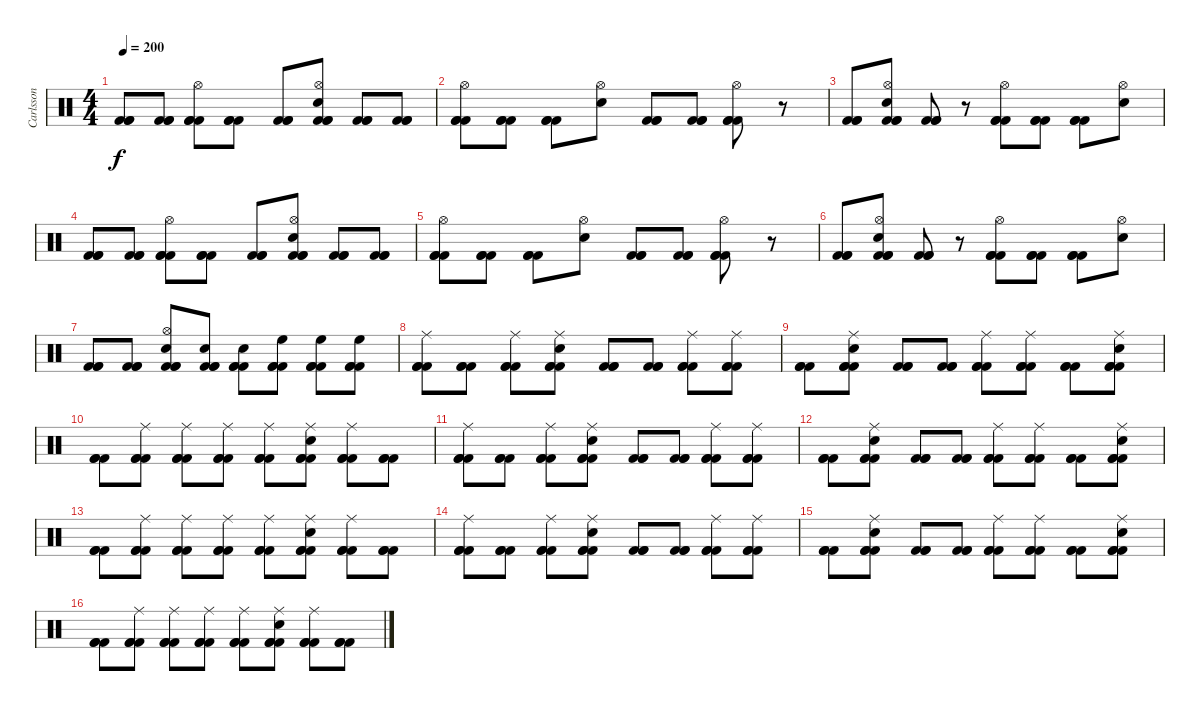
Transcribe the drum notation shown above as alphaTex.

\track ("Carlsson" "Carlsson") {instrument percussion}
\staff {score}
\articulation defaults
\ts (4 4)
\tempo 200
\clef neutral
\ks c
("Kick (hit) 2" "Kick (hit) 2" "Kick (hit) 2").8{dy f} ("Kick (hit) 2" "Kick (hit) 2" "Kick (hit) 2").8 ("Hi-Hat (open)" "Kick (hit) 2" "Kick (hit) 2" "Kick (hit) 2").8 ("Kick (hit) 2" "Kick (hit) 2" "Kick (hit) 2").8 ("Kick (hit) 2" "Kick (hit) 2" "Kick (hit) 2").8 ("Hi-Hat (open)" "Snare (hit) 2" "Kick (hit) 2" "Kick (hit) 2" "Kick (hit) 2").8 ("Kick (hit) 2" "Kick (hit) 2" "Kick (hit) 2").8 ("Kick (hit) 2" "Kick (hit) 2" "Kick (hit) 2").8 |
("Hi-Hat (open)" "Kick (hit) 2" "Kick (hit) 2" "Kick (hit) 2").8 ("Kick (hit) 2" "Kick (hit) 2" "Kick (hit) 2").8 ("Kick (hit) 2" "Kick (hit) 2" "Kick (hit) 2").8 ("Hi-Hat (open)" "Snare (hit) 2").8 ("Kick (hit) 2" "Kick (hit) 2" "Kick (hit) 2").8 ("Kick (hit) 2" "Kick (hit) 2" "Kick (hit) 2").8 ("Hi-Hat (open)" "Kick (hit) 2" "Kick (hit) 2" "Kick (hit) 2").8 r.8 |
("Kick (hit) 2" "Kick (hit) 2" "Kick (hit) 2").8 ("Hi-Hat (open)" "Snare (hit) 2" "Kick (hit) 2" "Kick (hit) 2" "Kick (hit) 2").8 ("Kick (hit) 2" "Kick (hit) 2" "Kick (hit) 2").8 r.8 ("Hi-Hat (open)" "Kick (hit) 2" "Kick (hit) 2" "Kick (hit) 2").8 ("Kick (hit) 2" "Kick (hit) 2" "Kick (hit) 2").8 ("Kick (hit) 2" "Kick (hit) 2" "Kick (hit) 2").8 ("Hi-Hat (open)" "Snare (hit) 2").8 |
("Kick (hit) 2" "Kick (hit) 2" "Kick (hit) 2").8 ("Kick (hit) 2" "Kick (hit) 2" "Kick (hit) 2").8 ("Hi-Hat (open)" "Kick (hit) 2" "Kick (hit) 2" "Kick (hit) 2").8 ("Kick (hit) 2" "Kick (hit) 2" "Kick (hit) 2").8 ("Kick (hit) 2" "Kick (hit) 2" "Kick (hit) 2").8 ("Hi-Hat (open)" "Snare (hit) 2" "Kick (hit) 2" "Kick (hit) 2" "Kick (hit) 2").8 ("Kick (hit) 2" "Kick (hit) 2" "Kick (hit) 2").8 ("Kick (hit) 2" "Kick (hit) 2" "Kick (hit) 2").8 |
("Hi-Hat (open)" "Kick (hit) 2" "Kick (hit) 2" "Kick (hit) 2").8 ("Kick (hit) 2" "Kick (hit) 2" "Kick (hit) 2").8 ("Kick (hit) 2" "Kick (hit) 2" "Kick (hit) 2").8 ("Hi-Hat (open)" "Snare (hit) 2").8 ("Kick (hit) 2" "Kick (hit) 2" "Kick (hit) 2").8 ("Kick (hit) 2" "Kick (hit) 2" "Kick (hit) 2").8 ("Hi-Hat (open)" "Kick (hit) 2" "Kick (hit) 2" "Kick (hit) 2").8 r.8 |
("Kick (hit) 2" "Kick (hit) 2" "Kick (hit) 2").8 ("Hi-Hat (open)" "Snare (hit) 2" "Kick (hit) 2" "Kick (hit) 2" "Kick (hit) 2").8 ("Kick (hit) 2" "Kick (hit) 2" "Kick (hit) 2").8 r.8 ("Hi-Hat (open)" "Kick (hit) 2" "Kick (hit) 2" "Kick (hit) 2").8 ("Kick (hit) 2" "Kick (hit) 2" "Kick (hit) 2").8 ("Kick (hit) 2" "Kick (hit) 2" "Kick (hit) 2").8 ("Hi-Hat (open)" "Snare (hit) 2").8 |
("Kick (hit) 2" "Kick (hit) 2" "Kick (hit) 2").8 ("Kick (hit) 2" "Kick (hit) 2" "Kick (hit) 2").8 ("Hi-Hat (open)" "Snare (hit) 2" "Kick (hit) 2" "Kick (hit) 2" "Kick (hit) 2").8 ("Snare (hit) 2" "Kick (hit) 2" "Kick (hit) 2" "Kick (hit) 2").8 ("Snare (hit) 2" "Kick (hit) 2" "Kick (hit) 2" "Kick (hit) 2").8 ("High Floor Tom (hit)" "Kick (hit) 2" "Kick (hit) 2" "Kick (hit) 2").8 ("High Floor Tom (hit)" "Kick (hit) 2" "Kick (hit) 2" "Kick (hit) 2").8 ("High Floor Tom (hit)" "Kick (hit) 2" "Kick (hit) 2" "Kick (hit) 2").8 |
("Ride (middle)" "Kick (hit) 2" "Kick (hit) 2" "Kick (hit) 2").8 ("Kick (hit) 2" "Kick (hit) 2" "Kick (hit) 2").8 ("Ride (middle)" "Kick (hit) 2" "Kick (hit) 2" "Kick (hit) 2").8 ("Ride (middle)" "Snare (hit) 2" "Kick (hit) 2" "Kick (hit) 2" "Kick (hit) 2").8 ("Kick (hit) 2" "Kick (hit) 2" "Kick (hit) 2").8 ("Kick (hit) 2" "Kick (hit) 2" "Kick (hit) 2").8 ("Ride (middle)" "Kick (hit) 2" "Kick (hit) 2" "Kick (hit) 2").8 ("Ride (middle)" "Kick (hit) 2" "Kick (hit) 2" "Kick (hit) 2").8 |
("Kick (hit) 2" "Kick (hit) 2" "Kick (hit) 2").8 ("Ride (middle)" "Snare (hit) 2" "Kick (hit) 2" "Kick (hit) 2" "Kick (hit) 2").8 ("Kick (hit) 2" "Kick (hit) 2" "Kick (hit) 2").8 ("Kick (hit) 2" "Kick (hit) 2" "Kick (hit) 2").8 ("Ride (middle)" "Kick (hit) 2" "Kick (hit) 2" "Kick (hit) 2").8 ("Ride (middle)" "Kick (hit) 2" "Kick (hit) 2" "Kick (hit) 2").8 ("Kick (hit) 2" "Kick (hit) 2" "Kick (hit) 2").8 ("Ride (middle)" "Snare (hit) 2" "Kick (hit) 2" "Kick (hit) 2" "Kick (hit) 2").8 |
("Kick (hit) 2" "Kick (hit) 2" "Kick (hit) 2").8 ("Ride (middle)" "Kick (hit) 2" "Kick (hit) 2" "Kick (hit) 2").8 ("Ride (middle)" "Kick (hit) 2" "Kick (hit) 2" "Kick (hit) 2").8 ("Ride (middle)" "Kick (hit) 2" "Kick (hit) 2" "Kick (hit) 2").8 ("Ride (middle)" "Kick (hit) 2" "Kick (hit) 2" "Kick (hit) 2").8 ("Ride (middle)" "Snare (hit) 2" "Kick (hit) 2" "Kick (hit) 2" "Kick (hit) 2").8 ("Ride (middle)" "Kick (hit) 2" "Kick (hit) 2" "Kick (hit) 2").8 ("Kick (hit) 2" "Kick (hit) 2" "Kick (hit) 2").8 |
("Ride (middle)" "Kick (hit) 2" "Kick (hit) 2" "Kick (hit) 2").8 ("Kick (hit) 2" "Kick (hit) 2" "Kick (hit) 2").8 ("Ride (middle)" "Kick (hit) 2" "Kick (hit) 2" "Kick (hit) 2").8 ("Ride (middle)" "Snare (hit) 2" "Kick (hit) 2" "Kick (hit) 2" "Kick (hit) 2").8 ("Kick (hit) 2" "Kick (hit) 2" "Kick (hit) 2").8 ("Kick (hit) 2" "Kick (hit) 2" "Kick (hit) 2").8 ("Ride (middle)" "Kick (hit) 2" "Kick (hit) 2" "Kick (hit) 2").8 ("Ride (middle)" "Kick (hit) 2" "Kick (hit) 2" "Kick (hit) 2").8 |
("Kick (hit) 2" "Kick (hit) 2" "Kick (hit) 2").8 ("Ride (middle)" "Snare (hit) 2" "Kick (hit) 2" "Kick (hit) 2" "Kick (hit) 2").8 ("Kick (hit) 2" "Kick (hit) 2" "Kick (hit) 2").8 ("Kick (hit) 2" "Kick (hit) 2" "Kick (hit) 2").8 ("Ride (middle)" "Kick (hit) 2" "Kick (hit) 2" "Kick (hit) 2").8 ("Ride (middle)" "Kick (hit) 2" "Kick (hit) 2" "Kick (hit) 2").8 ("Kick (hit) 2" "Kick (hit) 2" "Kick (hit) 2").8 ("Ride (middle)" "Snare (hit) 2" "Kick (hit) 2" "Kick (hit) 2" "Kick (hit) 2").8 |
("Kick (hit) 2" "Kick (hit) 2" "Kick (hit) 2").8 ("Ride (middle)" "Kick (hit) 2" "Kick (hit) 2" "Kick (hit) 2").8 ("Ride (middle)" "Kick (hit) 2" "Kick (hit) 2" "Kick (hit) 2").8 ("Ride (middle)" "Kick (hit) 2" "Kick (hit) 2" "Kick (hit) 2").8 ("Ride (middle)" "Kick (hit) 2" "Kick (hit) 2" "Kick (hit) 2").8 ("Ride (middle)" "Snare (hit) 2" "Kick (hit) 2" "Kick (hit) 2" "Kick (hit) 2").8 ("Ride (middle)" "Kick (hit) 2" "Kick (hit) 2" "Kick (hit) 2").8 ("Kick (hit) 2" "Kick (hit) 2" "Kick (hit) 2").8 |
("Ride (middle)" "Kick (hit) 2" "Kick (hit) 2" "Kick (hit) 2").8 ("Kick (hit) 2" "Kick (hit) 2" "Kick (hit) 2").8 ("Ride (middle)" "Kick (hit) 2" "Kick (hit) 2" "Kick (hit) 2").8 ("Ride (middle)" "Snare (hit) 2" "Kick (hit) 2" "Kick (hit) 2" "Kick (hit) 2").8 ("Kick (hit) 2" "Kick (hit) 2" "Kick (hit) 2").8 ("Kick (hit) 2" "Kick (hit) 2" "Kick (hit) 2").8 ("Ride (middle)" "Kick (hit) 2" "Kick (hit) 2" "Kick (hit) 2").8 ("Ride (middle)" "Kick (hit) 2" "Kick (hit) 2" "Kick (hit) 2").8 |
("Kick (hit) 2" "Kick (hit) 2" "Kick (hit) 2").8 ("Ride (middle)" "Snare (hit) 2" "Kick (hit) 2" "Kick (hit) 2" "Kick (hit) 2").8 ("Kick (hit) 2" "Kick (hit) 2" "Kick (hit) 2").8 ("Kick (hit) 2" "Kick (hit) 2" "Kick (hit) 2").8 ("Ride (middle)" "Kick (hit) 2" "Kick (hit) 2" "Kick (hit) 2").8 ("Ride (middle)" "Kick (hit) 2" "Kick (hit) 2" "Kick (hit) 2").8 ("Kick (hit) 2" "Kick (hit) 2" "Kick (hit) 2").8 ("Ride (middle)" "Snare (hit) 2" "Kick (hit) 2" "Kick (hit) 2" "Kick (hit) 2").8 |
("Kick (hit) 2" "Kick (hit) 2" "Kick (hit) 2").8 ("Ride (middle)" "Kick (hit) 2" "Kick (hit) 2" "Kick (hit) 2").8 ("Ride (middle)" "Kick (hit) 2" "Kick (hit) 2" "Kick (hit) 2").8 ("Ride (middle)" "Kick (hit) 2" "Kick (hit) 2" "Kick (hit) 2").8 ("Ride (middle)" "Kick (hit) 2" "Kick (hit) 2" "Kick (hit) 2").8 ("Ride (middle)" "Snare (hit) 2" "Kick (hit) 2" "Kick (hit) 2" "Kick (hit) 2").8 ("Ride (middle)" "Kick (hit) 2" "Kick (hit) 2" "Kick (hit) 2").8 ("Kick (hit) 2" "Kick (hit) 2" "Kick (hit) 2").8
